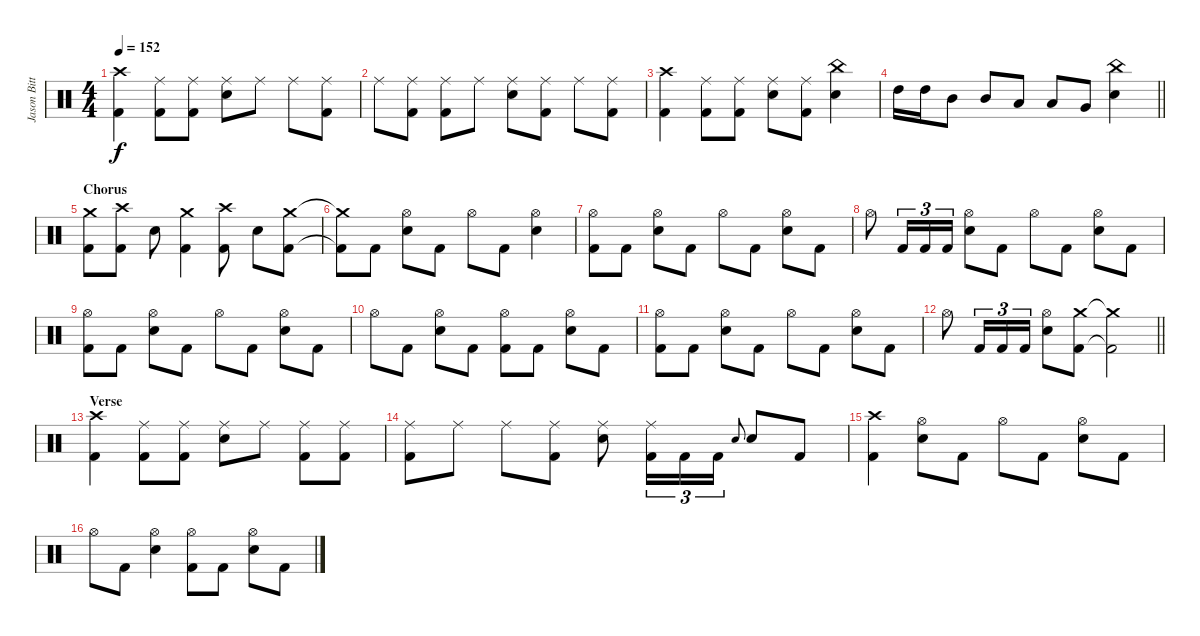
\track ("Jason Bittner" "Jason Bitt") {instrument percussion}
\staff {score}
\articulation defaults
\ts (4 4)
\tempo 152
\clef neutral
\ks c
("Crash high (hit)" "Kick (hit) 2").4{dy f} ("Ride (middle)" "Kick (hit) 2").8 ("Ride (middle)" "Kick (hit) 2").8 ("Ride (middle)" "Electric Snare (hit)").8 "Ride (middle)".8 "Ride (middle)".8 ("Ride (middle)" "Kick (hit) 2").8 |
"Ride (middle)".8 ("Ride (middle)" "Kick (hit) 2").8 ("Ride (middle)" "Kick (hit) 2").8 "Ride (middle)".8 ("Ride (middle)" "Electric Snare (hit)").8 ("Ride (middle)" "Kick (hit) 2").8 "Ride (middle)".8 ("Ride (middle)" "Kick (hit) 2").8 |
("Crash high (hit)" "Kick (hit) 2").4 ("Ride (middle)" "Kick (hit) 2").8 ("Ride (middle)" "Kick (hit) 2").8 ("Ride (middle)" "Electric Snare (hit)").8 ("Ride (middle)" "Kick (hit) 2").8 ("China (hit)" "Electric Snare (hit)").4 |
\barLineRight lightlight "High Tom (hit)".16 "High Tom (hit)".16 "Mid Tom (hit)".8 "Mid Tom (hit)".8 "Low Tom (hit)".8 "Low Tom (hit)".8 "Very Low Tom (hit)".8
("China (hit)" "Electric Snare (hit)").4 |
\section ("" "Chorus")
("Crash medium (hit)" "Kick (hit) 2").8 ("Crash high (hit)" "Kick (hit) 2").8 "Electric Snare (hit)".8 ("Crash medium (hit)" "Kick (hit) 2").4 ("Crash high (hit)" "Kick (hit) 2").8 "Electric Snare (hit)".8 ("Crash medium (hit)" "Kick (hit) 2").8 |
("Crash medium (hit)"{t} "Kick (hit) 2"{t}).8 "Kick (hit) 2".8 ("Hi-Hat (open)" "Electric Snare (hit)").8 "Kick (hit) 2".8 "Hi-Hat (open)".8 "Kick (hit) 2".8 ("Hi-Hat (open)" "Electric Snare (hit)").4 |
("Hi-Hat (open)" "Kick (hit) 2").8 "Kick (hit) 2".8 ("Hi-Hat (open)" "Electric Snare (hit)").8 "Kick (hit) 2".8 "Hi-Hat (open)".8 "Kick (hit) 2".8 ("Hi-Hat (open)" "Electric Snare (hit)").8 "Kick (hit) 2".8 |
"Hi-Hat (open)".8 "Kick (hit) 2".16{tu (3 2)} "Kick (hit) 2".16{tu (3 2)} "Kick (hit) 2".16{tu (3 2)} ("Hi-Hat (open)" "Electric Snare (hit)").8 "Kick (hit) 2".8 "Hi-Hat (open)".8 "Kick (hit) 2".8 ("Hi-Hat (open)" "Electric Snare (hit)").8 "Kick (hit) 2".8 |
("Hi-Hat (open)" "Kick (hit) 2").8 "Kick (hit) 2".8 ("Hi-Hat (open)" "Electric Snare (hit)").8 "Kick (hit) 2".8 "Hi-Hat (open)".8 "Kick (hit) 2".8 ("Hi-Hat (open)" "Electric Snare (hit)").8 "Kick (hit) 2".8 |
"Hi-Hat (open)".8 "Kick (hit) 2".8 ("Hi-Hat (open)" "Electric Snare (hit)").8 "Kick (hit) 2".8 ("Hi-Hat (open)" "Kick (hit) 2").8 "Kick (hit) 2".8 ("Hi-Hat (open)" "Electric Snare (hit)").8 "Kick (hit) 2".8 |
("Hi-Hat (open)" "Kick (hit) 2").8 "Kick (hit) 2".8 ("Hi-Hat (open)" "Electric Snare (hit)").8 "Kick (hit) 2".8 "Hi-Hat (open)".8 "Kick (hit) 2".8 ("Hi-Hat (open)" "Electric Snare (hit)").8 "Kick (hit) 2".8 |
\barLineRight lightlight "Hi-Hat (open)".8 "Kick (hit) 2".16{tu (3 2)} "Kick (hit) 2".16{tu (3 2)} "Kick (hit) 2".16{tu (3 2)}
("Hi-Hat (open)" "Electric Snare (hit)").8 ("Crash medium (hit)" "Kick (hit) 2").8 ("Crash medium (hit)"{t} "Kick (hit) 2"{t}).2 |
\section ("" "Verse")
("Crash high (hit)" "Kick (hit) 2").4 ("Ride (middle)" "Kick (hit) 2").8 ("Ride (middle)" "Kick (hit) 2").8 ("Ride (middle)" "Electric Snare (hit)").8 "Ride (middle)".8 ("Ride (middle)" "Kick (hit) 2").8 ("Ride (middle)" "Kick (hit) 2").8 |
("Ride (middle)" "Kick (hit) 2").8 "Ride (middle)".8 "Ride (middle)".8 ("Ride (middle)" "Kick (hit) 2").8 ("Ride (middle)" "Electric Snare (hit)").8 ("Ride (middle)" "Kick (hit) 2").16{tu (3 2)} "Kick (hit) 2".16{tu (3 2)} "Kick (hit) 2".16{tu (3 2)} "Electric Snare (hit)".8{gr onbeat} "Electric Snare (hit)".8 "Kick (hit) 2".8 |
("Crash high (hit)" "Kick (hit) 2").4 ("Hi-Hat (open)" "Electric Snare (hit)").8 "Kick (hit) 2".8 "Hi-Hat (open)".8 "Kick (hit) 2".8 ("Hi-Hat (open)" "Electric Snare (hit)").8 "Kick (hit) 2".8 |
"Hi-Hat (open)".8 "Kick (hit) 2".8 ("Hi-Hat (open)" "Electric Snare (hit)").4 ("Hi-Hat (open)" "Kick (hit) 2").8 "Kick (hit) 2".8 ("Hi-Hat (open)" "Electric Snare (hit)").8 "Kick (hit) 2".8
